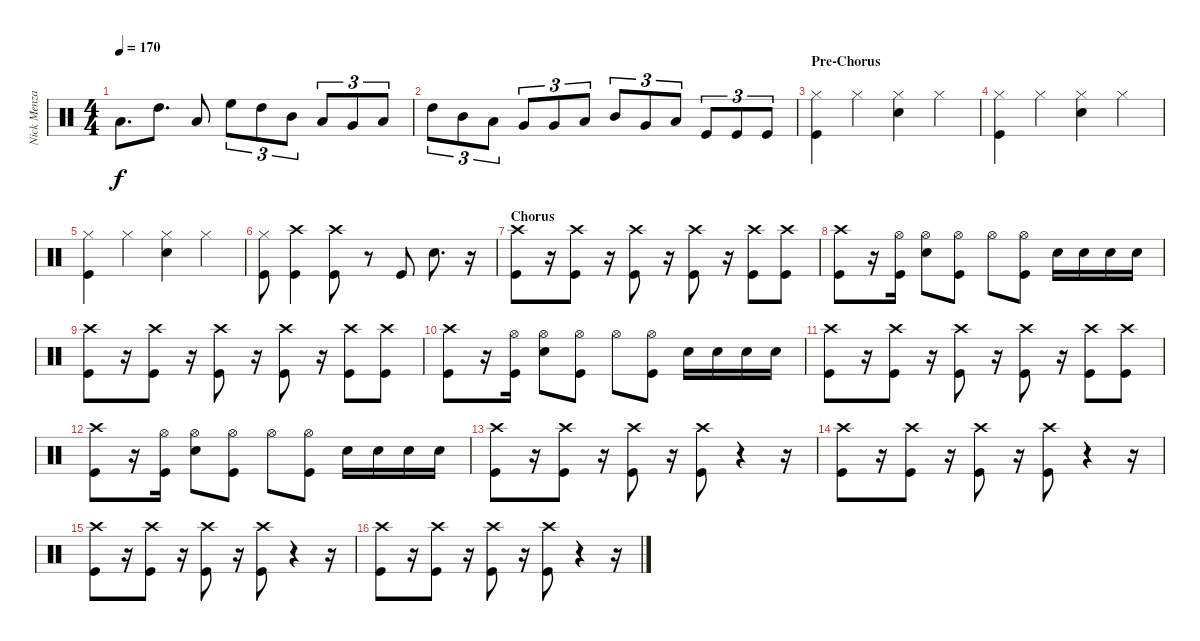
\track ("Nick Menza" "Nick Menza") {instrument percussion}
\staff {score}
\articulation defaults
\ts (4 4)
\tempo 170
\clef neutral
\ks c "Low Floor Tom (hit)".8{d dy f} "High Tom (hit)".8{d} "Low Floor Tom (hit)".8 "High Floor Tom (hit)".8{tu (3 2)} "High Tom (hit)".8{tu (3 2)} "Mid Tom (hit)".8{tu (3 2)} "Low Tom (hit)".8{tu (3 2)} "Very Low Tom (hit)".8{tu (3 2)} "Low Floor Tom (hit)".8{tu (3 2)}
|
"High Tom (hit)".8{tu (3 2)} "Mid Tom (hit)".8{tu (3 2)} "Low Tom (hit)".8{tu (3 2)} "Very Low Tom (hit)".8{tu (3 2)} "Very Low Tom (hit)".8{tu (3 2)} "Low Floor Tom (hit)".8{tu (3 2)} "Mid Tom (hit)".8{tu (3 2)} "Very Low Tom (hit)".8{tu (3 2)} "Low Floor Tom (hit)".8{tu (3 2)} "Kick (hit)".8{tu (3 2)} "Kick (hit)".8{tu (3 2)} "Kick (hit)".8{tu (3 2)} |
\section ("" "Pre-Chorus")
("Hi-Hat (closed)" "Kick (hit)").4 "Hi-Hat (closed)".4 ("Hi-Hat (closed)" "Snare (hit) 2").4 "Hi-Hat (closed)".4 |
("Hi-Hat (closed)" "Kick (hit)").4 "Hi-Hat (closed)".4 ("Hi-Hat (closed)" "Snare (hit) 2").4 "Hi-Hat (closed)".4 |
("Hi-Hat (closed)" "Kick (hit)").4 "Hi-Hat (closed)".4 ("Hi-Hat (closed)" "Snare (hit) 2").4 "Hi-Hat (closed)".4 |
("Hi-Hat (closed)" "Kick (hit)").8 ("Crash high (hit)" "Kick (hit)").4 ("Crash high (hit)" "Kick (hit)").8 r.8 "Kick (hit)".8 "Snare (hit) 2".8{d} r.16 |
\section ("" "Chorus")
("Crash high (hit)" "Kick (hit)").8 r.16 ("Crash high (hit)" "Kick (hit)").8 r.16 ("Crash high (hit)" "Kick (hit)").8 r.16 ("Crash high (hit)" "Kick (hit)").8 r.16 ("Crash high (hit)" "Kick (hit)").8 ("Crash high (hit)" "Kick (hit)").8 |
("Crash high (hit)" "Kick (hit)").8 r.16 ("Hi-Hat (open)" "Kick (hit)").16 ("Hi-Hat (open)" "Snare (hit) 2").8 ("Hi-Hat (open)" "Kick (hit)").8 "Hi-Hat (open)".8 ("Hi-Hat (open)" "Kick (hit)").8 "Snare (hit) 2".16 "Snare (hit) 2".16 "Snare (hit) 2".16 "Snare (hit) 2".16 |
("Crash high (hit)" "Kick (hit)").8 r.16 ("Crash high (hit)" "Kick (hit)").8 r.16 ("Crash high (hit)" "Kick (hit)").8 r.16 ("Crash high (hit)" "Kick (hit)").8 r.16 ("Crash high (hit)" "Kick (hit)").8 ("Crash high (hit)" "Kick (hit)").8 |
("Crash high (hit)" "Kick (hit)").8 r.16 ("Hi-Hat (open)" "Kick (hit)").16 ("Hi-Hat (open)" "Snare (hit) 2").8 ("Hi-Hat (open)" "Kick (hit)").8 "Hi-Hat (open)".8 ("Hi-Hat (open)" "Kick (hit)").8 "Snare (hit) 2".16 "Snare (hit) 2".16 "Snare (hit) 2".16 "Snare (hit) 2".16 |
("Crash high (hit)" "Kick (hit)").8 r.16 ("Crash high (hit)" "Kick (hit)").8 r.16 ("Crash high (hit)" "Kick (hit)").8 r.16 ("Crash high (hit)" "Kick (hit)").8 r.16 ("Crash high (hit)" "Kick (hit)").8 ("Crash high (hit)" "Kick (hit)").8 |
("Crash high (hit)" "Kick (hit)").8 r.16 ("Hi-Hat (open)" "Kick (hit)").16 ("Hi-Hat (open)" "Snare (hit) 2").8 ("Hi-Hat (open)" "Kick (hit)").8 "Hi-Hat (open)".8 ("Hi-Hat (open)" "Kick (hit)").8 "Snare (hit) 2".16 "Snare (hit) 2".16 "Snare (hit) 2".16 "Snare (hit) 2".16 |
("Crash high (hit)" "Kick (hit)").8 r.16 ("Crash high (hit)" "Kick (hit)").8 r.16 ("Crash high (hit)" "Kick (hit)").8 r.16 ("Crash high (hit)" "Kick (hit)").8 r.4 r.16 |
("Crash high (hit)" "Kick (hit)").8 r.16 ("Crash high (hit)" "Kick (hit)").8 r.16 ("Crash high (hit)" "Kick (hit)").8 r.16 ("Crash high (hit)" "Kick (hit)").8 r.4 r.16 |
("Crash high (hit)" "Kick (hit)").8 r.16 ("Crash high (hit)" "Kick (hit)").8 r.16 ("Crash high (hit)" "Kick (hit)").8 r.16 ("Crash high (hit)" "Kick (hit)").8 r.4 r.16 |
("Crash high (hit)" "Kick (hit)").8 r.16 ("Crash high (hit)" "Kick (hit)").8 r.16 ("Crash high (hit)" "Kick (hit)").8 r.16 ("Crash high (hit)" "Kick (hit)").8 r.4 r.16
